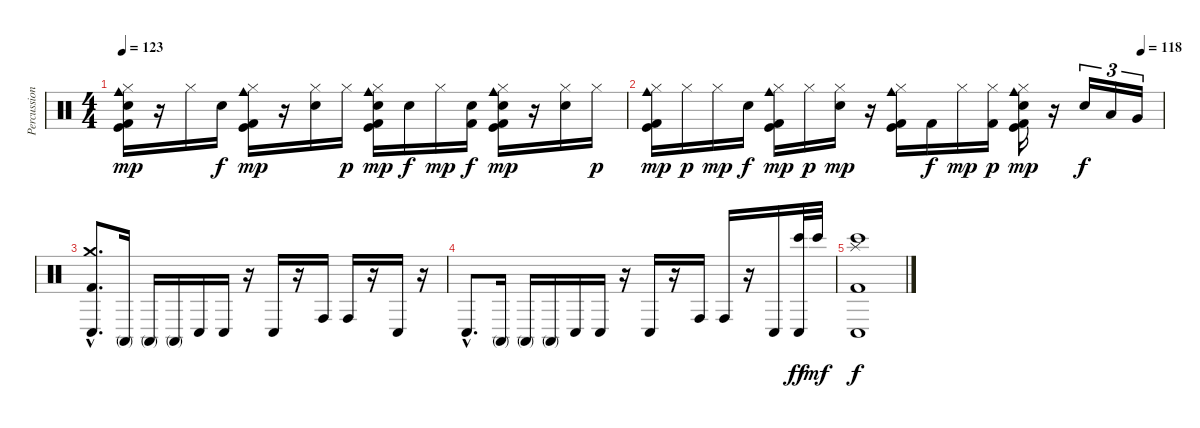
\track ("Percussion" "Percussion") {instrument percussion}
\staff {score}
\articulation defaults
\ts (4 4)
\tempo 123
\clef neutral
\ks c
("Hi-Hat (closed)" "Cowbell medium (hit)" "Kick (hit)" "Electric Snare (hit)" "Kick (hit) 2").16{dy mp} r.16 "Hi-Hat (closed)".16 "Electric Snare (hit)".16{dy f} ("Hi-Hat (closed)" "Cowbell medium (hit)" "Kick (hit)" "Kick (hit) 2").16{dy mp} r.16 ("Hi-Hat (closed)" "Electric Snare (hit)").16 "Hi-Hat (closed)".16{dy p} ("Hi-Hat (closed)" "Cowbell medium (hit)" "Kick (hit)" "Electric Snare (hit)" "Kick (hit) 2").16{dy mp} "Electric Snare (hit)".16{dy f} "Hi-Hat (closed)".16{dy mp} ("Electric Snare (hit)" "Kick (hit) 2").16{dy f} ("Hi-Hat (closed)" "Cowbell medium (hit)" "Kick (hit)" "Electric Snare (hit)" "Kick (hit) 2").16{dy mp} r.16 ("Hi-Hat (closed)" "Electric Snare (hit)").16 "Hi-Hat (closed)".16{dy p} |
\tempo (118 0.9583333333333334)
("Hi-Hat (closed)" "Cowbell medium (hit)" "Kick (hit)" "Kick (hit) 2").16{dy mp} "Hi-Hat (closed)".16{dy p} "Hi-Hat (closed)".16{dy mp} "Electric Snare (hit)".16{dy f} ("Hi-Hat (closed)" "Cowbell medium (hit)" "Kick (hit)" "Kick (hit) 2").16{dy mp} "Hi-Hat (closed)".16{dy p} ("Hi-Hat (closed)" "Electric Snare (hit)").16{dy mp} r.16 ("Hi-Hat (closed)" "Cowbell medium (hit)" "Kick (hit)" "Kick (hit) 2").16 "Kick (hit) 2".16{dy f} "Hi-Hat (closed)".16{dy mp} ("Hi-Hat (closed)" "Kick (hit) 2").16{dy p} ("Hi-Hat (closed)" "Cowbell medium (hit)" "Kick (hit)" "Electric Snare (hit)" "Kick (hit) 2").16{dy mp} r.16 "Electric Snare (hit)".16{tu (3 2) dy f} "Low Tom (hit)".16{tu (3 2)} "Very Low Tom (hit)".16{tu (3 2)} |
("Crash medium (hit)"{hac} "Conga low (hit)"{hac} "Kick (hit) 2"{hac}).8{d} "Conga high (mute)".16 "Conga high (mute)".16 "Conga high (mute)".16 "Conga low (hit)".16 "Conga low (hit)".16 r.16 "Conga low (hit)".16 r.16 "Conga high (hit)".16 "Conga high (hit)".16 r.16 "Conga low (hit)".16 r.16 |
"Conga low (hit)"{hac}.8{d} "Conga high (mute)".16 "Conga high (mute)".16 "Conga high (mute)".16 "Conga low (hit)".16 "Conga low (hit)".16 r.16 "Conga low (hit)".16 r.16 "Conga high (hit)".16 "Conga high (hit)".16 r.16 "Conga low (hit)".16 ("Bongo High (hit)" "Conga low (hit)").32{dy ff} "Bongo High (hit)".32{dy mf} |
("Splash (hit)" "Bongo High (hit)" "Conga low (hit)" "Kick (hit) 2").1{dy f}
